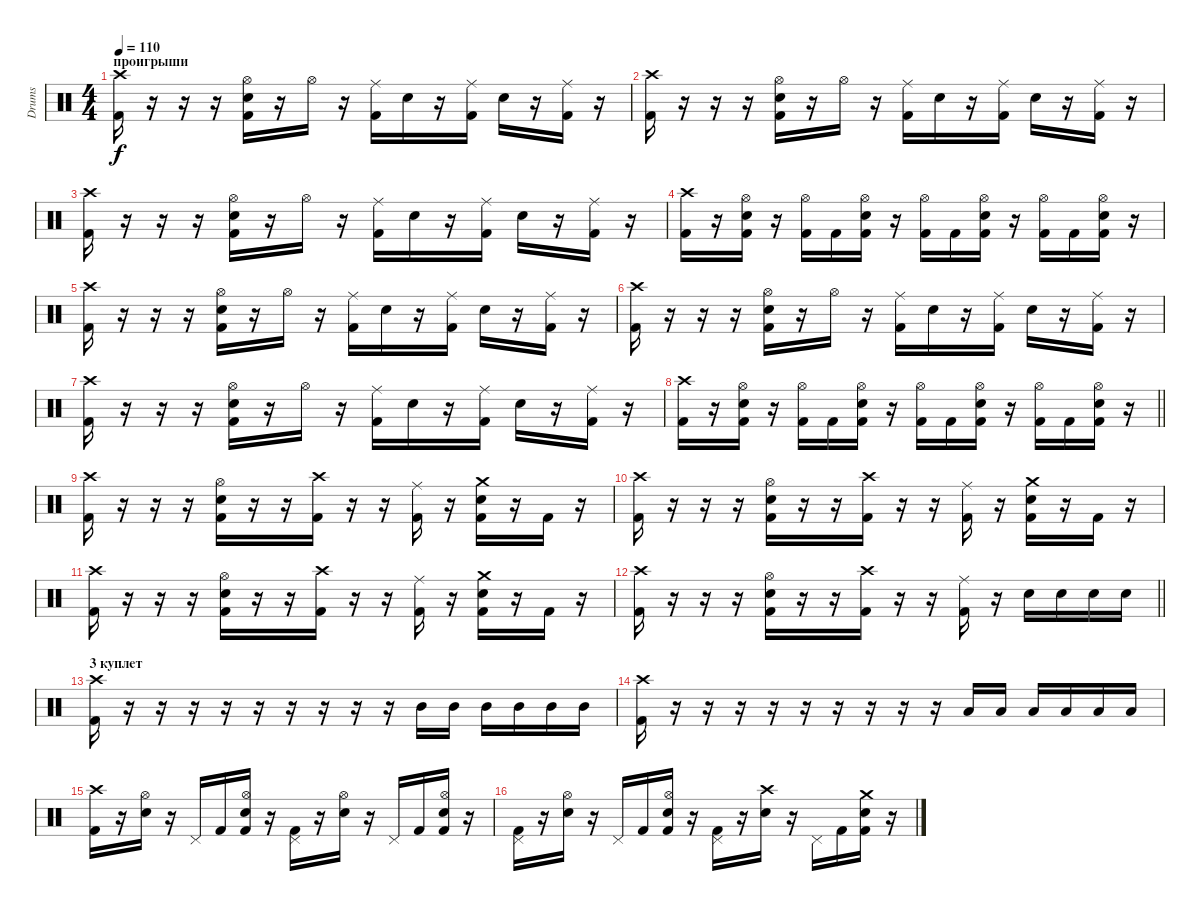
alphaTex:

\track ("Drums" "Drums") {instrument percussion}
\staff {score}
\articulation defaults
\ts (4 4)
\section ("" "проигрыши")
\tempo 110
\clef neutral
\ks c
("Crash high (hit)" "Kick (hit) 2").16{dy f} r.16 r.16 r.16 ("Hi-Hat (open)" "Snare (hit) 2" "Kick (hit) 2").16 r.16 "Hi-Hat (open)".16 r.16 ("Ride (middle)" "Kick (hit) 2").16 "Snare (hit) 2".16 r.16 ("Ride (middle)" "Kick (hit) 2").16 "Snare (hit) 2".16 r.16 ("Ride (middle)" "Kick (hit) 2").16 r.16 |
("Crash high (hit)" "Kick (hit) 2").16 r.16 r.16 r.16 ("Hi-Hat (open)" "Snare (hit) 2" "Kick (hit) 2").16 r.16 "Hi-Hat (open)".16 r.16 ("Ride (middle)" "Kick (hit) 2").16 "Snare (hit) 2".16 r.16 ("Ride (middle)" "Kick (hit) 2").16 "Snare (hit) 2".16 r.16 ("Ride (middle)" "Kick (hit) 2").16 r.16 |
("Crash high (hit)" "Kick (hit) 2").16 r.16 r.16 r.16 ("Hi-Hat (open)" "Snare (hit) 2" "Kick (hit) 2").16 r.16 "Hi-Hat (open)".16 r.16 ("Ride (middle)" "Kick (hit) 2").16 "Snare (hit) 2".16 r.16 ("Ride (middle)" "Kick (hit) 2").16 "Snare (hit) 2".16 r.16 ("Ride (middle)" "Kick (hit) 2").16 r.16 |
("Crash high (hit)" "Kick (hit) 2").16 r.16 ("Hi-Hat (open)" "Snare (hit) 2" "Kick (hit) 2").16 r.16 ("Hi-Hat (open)" "Kick (hit) 2").16 "Kick (hit) 2".16 ("Hi-Hat (open)" "Snare (hit) 2" "Kick (hit) 2").16 r.16 ("Hi-Hat (open)" "Kick (hit) 2").16 "Kick (hit) 2".16 ("Hi-Hat (open)" "Snare (hit) 2" "Kick (hit) 2").16 r.16 ("Hi-Hat (open)" "Kick (hit) 2").16 "Kick (hit) 2".16 ("Hi-Hat (open)" "Snare (hit) 2" "Kick (hit) 2").16 r.16 |
("Crash high (hit)" "Kick (hit) 2").16 r.16 r.16 r.16 ("Hi-Hat (open)" "Snare (hit) 2" "Kick (hit) 2").16 r.16 "Hi-Hat (open)".16 r.16 ("Ride (middle)" "Kick (hit) 2").16 "Snare (hit) 2".16 r.16 ("Ride (middle)" "Kick (hit) 2").16 "Snare (hit) 2".16 r.16 ("Ride (middle)" "Kick (hit) 2").16 r.16 |
("Crash high (hit)" "Kick (hit) 2").16 r.16 r.16 r.16 ("Hi-Hat (open)" "Snare (hit) 2" "Kick (hit) 2").16 r.16 "Hi-Hat (open)".16 r.16 ("Ride (middle)" "Kick (hit) 2").16 "Snare (hit) 2".16 r.16 ("Ride (middle)" "Kick (hit) 2").16 "Snare (hit) 2".16 r.16 ("Ride (middle)" "Kick (hit) 2").16 r.16 |
("Crash high (hit)" "Kick (hit) 2").16 r.16 r.16 r.16 ("Hi-Hat (open)" "Snare (hit) 2" "Kick (hit) 2").16 r.16 "Hi-Hat (open)".16 r.16 ("Ride (middle)" "Kick (hit) 2").16 "Snare (hit) 2".16 r.16 ("Ride (middle)" "Kick (hit) 2").16 "Snare (hit) 2".16 r.16 ("Ride (middle)" "Kick (hit) 2").16 r.16 |
\barLineRight lightlight
("Crash high (hit)" "Kick (hit) 2").16 r.16 ("Hi-Hat (open)" "Snare (hit) 2" "Kick (hit) 2").16 r.16 ("Hi-Hat (open)" "Kick (hit) 2").16 "Kick (hit) 2".16 ("Hi-Hat (open)" "Snare (hit) 2" "Kick (hit) 2").16 r.16 ("Hi-Hat (open)" "Kick (hit) 2").16 "Kick (hit) 2".16 ("Hi-Hat (open)" "Snare (hit) 2" "Kick (hit) 2").16 r.16 ("Hi-Hat (open)" "Kick (hit) 2").16 "Kick (hit) 2".16 ("Hi-Hat (open)" "Snare (hit) 2" "Kick (hit) 2").16 r.16 |
\section ("" "")
("Crash high (hit)" "Kick (hit) 2").16 r.16 r.16 r.16 ("Hi-Hat (open)" "Snare (hit) 2" "Kick (hit) 2").16 r.16 r.16 ("Crash high (hit)" "Kick (hit) 2").16 r.16 r.16 ("Ride (middle)" "Kick (hit) 2").16 r.16 ("Crash medium (hit)" "Snare (hit) 2" "Kick (hit) 2").16 r.16 "Kick (hit) 2".16 r.16 |
("Crash high (hit)" "Kick (hit) 2").16 r.16 r.16 r.16 ("Hi-Hat (open)" "Snare (hit) 2" "Kick (hit) 2").16 r.16 r.16 ("Crash high (hit)" "Kick (hit) 2").16 r.16 r.16 ("Ride (middle)" "Kick (hit) 2").16 r.16 ("Crash medium (hit)" "Snare (hit) 2" "Kick (hit) 2").16 r.16 "Kick (hit) 2".16 r.16 |
("Crash high (hit)" "Kick (hit) 2").16 r.16 r.16 r.16 ("Hi-Hat (open)" "Snare (hit) 2" "Kick (hit) 2").16 r.16 r.16 ("Crash high (hit)" "Kick (hit) 2").16 r.16 r.16 ("Ride (middle)" "Kick (hit) 2").16 r.16 ("Crash medium (hit)" "Snare (hit) 2" "Kick (hit) 2").16 r.16 "Kick (hit) 2".16 r.16 |
\barLineRight lightlight
("Crash high (hit)" "Kick (hit) 2").16 r.16 r.16 r.16 ("Hi-Hat (open)" "Snare (hit) 2" "Kick (hit) 2").16 r.16 r.16 ("Crash high (hit)" "Kick (hit) 2").16 r.16 r.16 ("Ride (middle)" "Kick (hit) 2").16 r.16 "Snare (hit) 2".16 "Snare (hit) 2".16 "Snare (hit) 2".16 "Snare (hit) 2".16 |
\section ("" "3 куплет")
("Crash high (hit)" "Kick (hit) 2").16 r.16 r.16 r.16 r.16 r.16 r.16 r.16 r.16 r.16 "Mid Tom (hit)".16 "Mid Tom (hit)".16 "Mid Tom (hit)".16 "Mid Tom (hit)".16 "Mid Tom (hit)".16 "Mid Tom (hit)".16 |
("Crash high (hit)" "Kick (hit) 2").16 r.16 r.16 r.16 r.16 r.16 r.16 r.16 r.16 r.16 "Low Tom (hit)".16 "Low Tom (hit)".16 "Low Tom (hit)".16 "Low Tom (hit)".16 "Low Tom (hit)".16 "Low Tom (hit)".16 |
("Crash high (hit)" "Kick (hit) 2").16 r.16 ("Hi-Hat (open)" "Snare (hit) 2").16 r.16 "Pedal Hi-Hat (hit)".16 "Kick (hit) 2".16 ("Hi-Hat (open)" "Snare (hit) 2" "Kick (hit) 2").16 r.16 ("Pedal Hi-Hat (hit)" "Kick (hit) 2").16 r.16 ("Hi-Hat (open)" "Snare (hit) 2").16 r.16 "Pedal Hi-Hat (hit)".16 "Kick (hit) 2".16 ("Hi-Hat (open)" "Snare (hit) 2" "Kick (hit) 2").16 r.16 |
("Pedal Hi-Hat (hit)" "Kick (hit) 2").16 r.16 ("Hi-Hat (open)" "Snare (hit) 2").16 r.16 "Pedal Hi-Hat (hit)".16 "Kick (hit) 2".16 ("Hi-Hat (open)" "Snare (hit) 2" "Kick (hit) 2").16 r.16 ("Pedal Hi-Hat (hit)" "Kick (hit) 2").16 r.16 ("Crash high (hit)" "Snare (hit) 2").16 r.16 "Pedal Hi-Hat (hit)".16 "Kick (hit) 2".16 ("Crash medium (hit)" "Snare (hit) 2" "Kick (hit) 2").16 r.16
